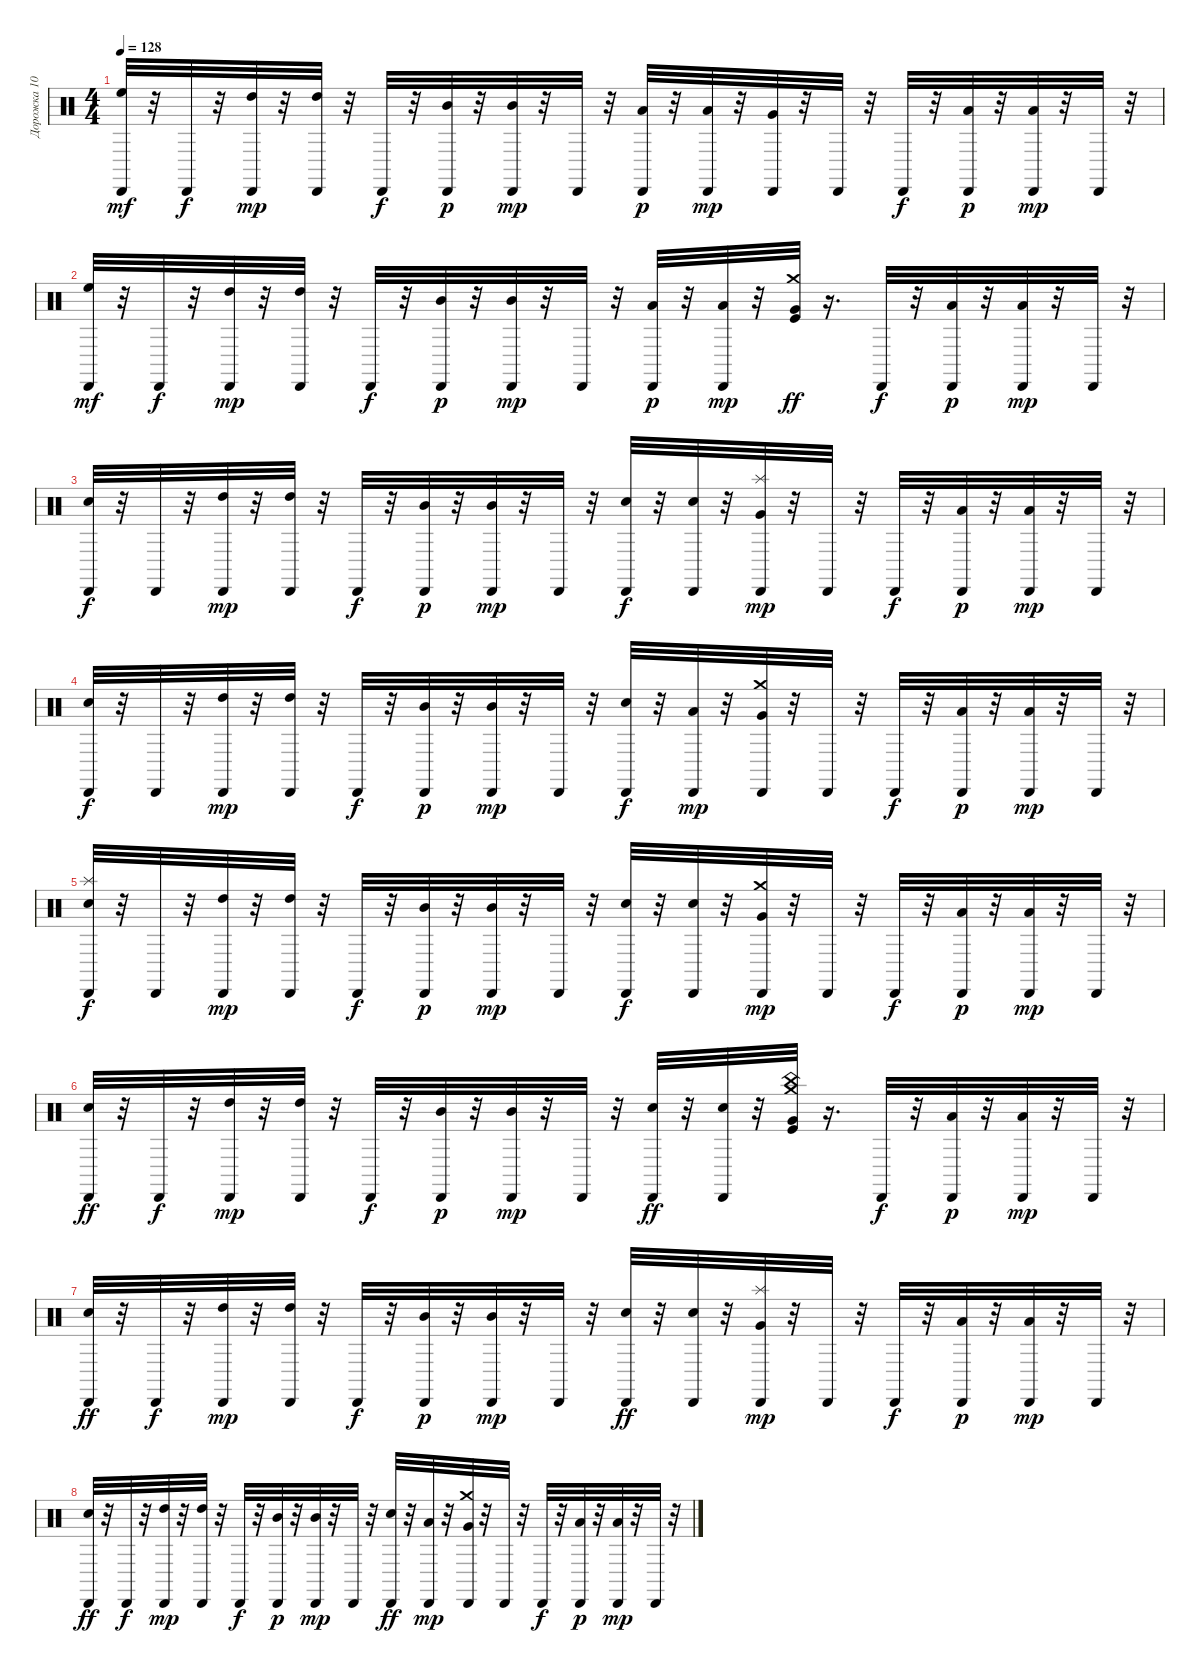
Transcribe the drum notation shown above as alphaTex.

\track ("Дорожка 10" "Дорожка 10") {instrument percussion}
\staff {score}
\articulation defaults
\ts (4 4)
\tempo 128
\clef neutral
\ks c
("High Floor Tom (hit)" "Cabasa (hit)").32{dy mf} r.32 "Cabasa (hit)".32{dy f} r.32 ("High Tom (hit)" "Cabasa (hit)").32{dy mp} r.32 ("Cabasa (hit)" "High Tom (hit)").32 r.32 "Cabasa (hit)".32{dy f} r.32 ("Mid Tom (hit)" "Cabasa (hit)").32{dy p} r.32 ("Cabasa (hit)" "Mid Tom (hit)").32{dy mp} r.32 "Cabasa (hit)".32 r.32 ("Cabasa (hit)" "Low Tom (hit)").32{dy p} r.32 ("Cabasa (hit)" "Low Tom (hit)").32{dy mp} r.32 ("Very Low Tom (hit)" "Cabasa (hit)").32 r.32 "Cabasa (hit)".32 r.32 "Cabasa (hit)".32{dy f} r.32 ("Low Floor Tom (hit)" "Cabasa (hit)").32{dy p} r.32 ("Low Floor Tom (hit)" "Cabasa (hit)").32{dy mp} r.32 "Cabasa (hit)".32 r.32 |
("Cabasa (hit)" "High Floor Tom (hit)").32{dy mf} r.32 "Cabasa (hit)".32{dy f} r.32 ("Cabasa (hit)" "High Tom (hit)").32{dy mp} r.32 ("High Tom (hit)" "Cabasa (hit)").32 r.32 "Cabasa (hit)".32{dy f} r.32 ("Cabasa (hit)" "Mid Tom (hit)").32{dy p} r.32 ("Cabasa (hit)" "Mid Tom (hit)").32{dy mp} r.32 "Cabasa (hit)".32 r.32 ("Cabasa (hit)" "Low Tom (hit)").32{dy p} r.32 ("Cabasa (hit)" "Low Tom (hit)").32{dy mp} r.32 ("Crash medium (hit)" "Very Low Tom (hit)" "Kick (hit)").32{dy ff} r.16{d} "Cabasa (hit)".32{dy f} r.32 ("Low Floor Tom (hit)" "Cabasa (hit)").32{dy p} r.32 ("Cabasa (hit)" "Low Floor Tom (hit)").32{dy mp} r.32 "Cabasa (hit)".32 r.32 |
("Cabasa (hit)" "Electric Snare (hit)").32{dy f} r.32 "Cabasa (hit)".32 r.32 ("Cabasa (hit)" "High Tom (hit)").32{dy mp} r.32 ("Cabasa (hit)" "High Tom (hit)").32 r.32 "Cabasa (hit)".32{dy f} r.32 ("Mid Tom (hit)" "Cabasa (hit)").32{dy p} r.32 ("Mid Tom (hit)" "Cabasa (hit)").32{dy mp} r.32 "Cabasa (hit)".32 r.32 ("Cabasa (hit)" "Electric Snare (hit)").32{dy f} r.32 ("Cabasa (hit)" "Electric Snare (hit)").32 r.32 ("Splash (hit)" "Cabasa (hit)" "Very Low Tom (hit)").32{dy mp} r.32 "Cabasa (hit)".32 r.32 "Cabasa (hit)".32{dy f} r.32 ("Low Floor Tom (hit)" "Cabasa (hit)").32{dy p} r.32 ("Low Floor Tom (hit)" "Cabasa (hit)").32{dy mp} r.32 "Cabasa (hit)".32 r.32 |
("Electric Snare (hit)" "Cabasa (hit)").32{dy f} r.32 "Cabasa (hit)".32 r.32 ("Cabasa (hit)" "High Tom (hit)").32{dy mp} r.32 ("High Tom (hit)" "Cabasa (hit)").32 r.32 "Cabasa (hit)".32{dy f} r.32 ("Cabasa (hit)" "Mid Tom (hit)").32{dy p} r.32 ("Cabasa (hit)" "Mid Tom (hit)").32{dy mp} r.32 "Cabasa (hit)".32 r.32 ("Cabasa (hit)" "Electric Snare (hit)").32{dy f} r.32 ("Low Tom (hit)" "Cabasa (hit)").32{dy mp} r.32 ("Crash medium (hit)" "Very Low Tom (hit)" "Cabasa (hit)").32 r.32 "Cabasa (hit)".32 r.32 "Cabasa (hit)".32{dy f} r.32 ("Low Floor Tom (hit)" "Cabasa (hit)").32{dy p} r.32 ("Low Floor Tom (hit)" "Cabasa (hit)").32{dy mp} r.32 "Cabasa (hit)".32 r.32 |
("Electric Snare (hit)" "Cabasa (hit)" "Splash (hit)").32{dy f} r.32 "Cabasa (hit)".32 r.32 ("High Tom (hit)" "Cabasa (hit)").32{dy mp} r.32 ("High Tom (hit)" "Cabasa (hit)").32 r.32 "Cabasa (hit)".32{dy f} r.32 ("Mid Tom (hit)" "Cabasa (hit)").32{dy p} r.32 ("Cabasa (hit)" "Mid Tom (hit)").32{dy mp} r.32 "Cabasa (hit)".32 r.32 ("Cabasa (hit)" "Electric Snare (hit)").32{dy f} r.32 ("Electric Snare (hit)" "Cabasa (hit)").32 r.32 ("Crash medium (hit)" "Cabasa (hit)" "Very Low Tom (hit)").32{dy mp} r.32 "Cabasa (hit)".32 r.32 "Cabasa (hit)".32{dy f} r.32 ("Low Floor Tom (hit)" "Cabasa (hit)").32{dy p} r.32 ("Low Floor Tom (hit)" "Cabasa (hit)").32{dy mp} r.32 "Cabasa (hit)".32 r.32 |
("Cabasa (hit)" "Electric Snare (hit)").32{dy ff} r.32 "Cabasa (hit)".32{dy f} r.32 ("Cabasa (hit)" "High Tom (hit)").32{dy mp} r.32 ("Cabasa (hit)" "High Tom (hit)").32 r.32 "Cabasa (hit)".32{dy f} r.32 ("Cabasa (hit)" "Mid Tom (hit)").32{dy p} r.32 ("Cabasa (hit)" "Mid Tom (hit)").32{dy mp} r.32 "Cabasa (hit)".32 r.32 ("Cabasa (hit)" "Electric Snare (hit)").32{dy ff} r.32 ("Electric Snare (hit)" "Cabasa (hit)").32 r.32 ("China (hit)" "Crash medium (hit)" "Very Low Tom (hit)" "Kick (hit)").32 r.16{d} "Cabasa (hit)".32{dy f} r.32 ("Low Floor Tom (hit)" "Cabasa (hit)").32{dy p} r.32 ("Cabasa (hit)" "Low Floor Tom (hit)").32{dy mp} r.32 "Cabasa (hit)".32 r.32 |
("Cabasa (hit)" "Electric Snare (hit)").32{dy ff} r.32 "Cabasa (hit)".32{dy f} r.32 ("Cabasa (hit)" "High Tom (hit)").32{dy mp} r.32 ("Cabasa (hit)" "High Tom (hit)").32 r.32 "Cabasa (hit)".32{dy f} r.32 ("Mid Tom (hit)" "Cabasa (hit)").32{dy p} r.32 ("Mid Tom (hit)" "Cabasa (hit)").32{dy mp} r.32 "Cabasa (hit)".32 r.32 ("Cabasa (hit)" "Electric Snare (hit)").32{dy ff} r.32 ("Cabasa (hit)" "Electric Snare (hit)").32 r.32 ("Splash (hit)" "Cabasa (hit)" "Very Low Tom (hit)").32{dy mp} r.32 "Cabasa (hit)".32 r.32 "Cabasa (hit)".32{dy f} r.32 ("Low Floor Tom (hit)" "Cabasa (hit)").32{dy p} r.32 ("Low Floor Tom (hit)" "Cabasa (hit)").32{dy mp} r.32 "Cabasa (hit)".32 r.32 |
("Electric Snare (hit)" "Cabasa (hit)").32{dy ff} r.32 "Cabasa (hit)".32{dy f} r.32 ("Cabasa (hit)" "High Tom (hit)").32{dy mp} r.32 ("High Tom (hit)" "Cabasa (hit)").32 r.32 "Cabasa (hit)".32{dy f} r.32 ("Cabasa (hit)" "Mid Tom (hit)").32{dy p} r.32 ("Cabasa (hit)" "Mid Tom (hit)").32{dy mp} r.32 "Cabasa (hit)".32 r.32 ("Cabasa (hit)" "Electric Snare (hit)").32{dy ff} r.32 ("Low Tom (hit)" "Cabasa (hit)").32{dy mp} r.32 ("Crash medium (hit)" "Very Low Tom (hit)" "Cabasa (hit)").32 r.32 "Cabasa (hit)".32 r.32 "Cabasa (hit)".32{dy f} r.32 ("Low Floor Tom (hit)" "Cabasa (hit)").32{dy p} r.32 ("Low Floor Tom (hit)" "Cabasa (hit)").32{dy mp} r.32 "Cabasa (hit)".32 r.32
